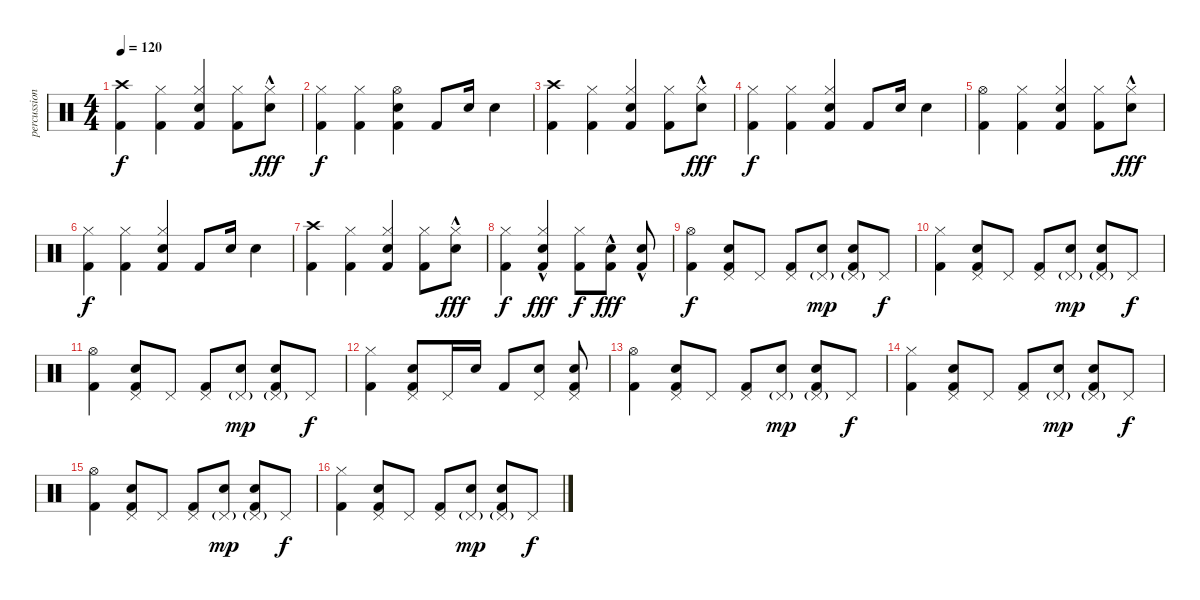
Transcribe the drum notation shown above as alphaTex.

\track ("percussion" "percussion") {instrument percussion}
\staff {score}
\articulation defaults
\ts (4 4)
\tempo 120
\clef neutral
\ks c
("Crash high (hit)" "Kick (hit) 2").4{dy f} ("Hi-Hat (closed)" "Kick (hit) 2").4 ("Hi-Hat (closed)" "Electric Snare (hit)" "Kick (hit) 2").4 ("Hi-Hat (closed)" "Kick (hit) 2").8 ("Hi-Hat (closed)" "Electric Snare (hit)"{hac}).8{dy fff} |
("Hi-Hat (closed)" "Kick (hit) 2").4{dy f} ("Hi-Hat (closed)" "Kick (hit) 2").4 ("Hi-Hat (open)" "Electric Snare (hit)" "Kick (hit) 2").4 "Kick (hit) 2".8 "Electric Snare (hit)".16 "Electric Snare (hit)".4 |
("Crash high (hit)" "Kick (hit) 2").4 ("Hi-Hat (closed)" "Kick (hit) 2").4 ("Hi-Hat (closed)" "Electric Snare (hit)" "Kick (hit) 2").4 ("Hi-Hat (closed)" "Kick (hit) 2").8 ("Hi-Hat (closed)" "Electric Snare (hit)"{hac}).8{dy fff} |
("Hi-Hat (closed)" "Kick (hit) 2").4{dy f} ("Hi-Hat (closed)" "Kick (hit) 2").4 ("Hi-Hat (closed)" "Electric Snare (hit)" "Kick (hit) 2").4 "Kick (hit) 2".8 "Electric Snare (hit)".16 "Electric Snare (hit)".4 |
("Hi-Hat (open)" "Kick (hit) 2").4 ("Hi-Hat (closed)" "Kick (hit) 2").4 ("Hi-Hat (closed)" "Electric Snare (hit)" "Kick (hit) 2").4 ("Hi-Hat (closed)" "Kick (hit) 2").8 ("Hi-Hat (closed)" "Electric Snare (hit)"{hac}).8{dy fff} |
("Hi-Hat (closed)" "Kick (hit) 2").4{dy f} ("Hi-Hat (closed)" "Kick (hit) 2").4 ("Hi-Hat (closed)" "Electric Snare (hit)" "Kick (hit) 2").4 "Kick (hit) 2".8 "Electric Snare (hit)".16 "Electric Snare (hit)".4 |
("Crash high (hit)" "Kick (hit) 2").4 ("Hi-Hat (closed)" "Kick (hit) 2").4 ("Hi-Hat (closed)" "Electric Snare (hit)" "Kick (hit) 2").4 ("Hi-Hat (closed)" "Kick (hit) 2").8 ("Hi-Hat (closed)" "Electric Snare (hit)"{hac}).8{dy fff} |
("Hi-Hat (closed)" "Kick (hit) 2").4{dy f} ("Hi-Hat (closed)" "Electric Snare (hit)"{hac} "Kick (hit) 2").4{dy fff} ("Hi-Hat (closed)" "Kick (hit) 2").8{dy f} ("Electric Snare (hit)"{hac} "Kick (hit) 2").8{dy fff} ("Electric Snare (hit)"{hac} "Kick (hit) 2").8 |
("Hi-Hat (open)" "Kick (hit) 2").4{dy f} ("Pedal Hi-Hat (hit)" "Electric Snare (hit)" "Kick (hit) 2").8 "Pedal Hi-Hat (hit)".8 ("Pedal Hi-Hat (hit)" "Kick (hit) 2").8 ("Pedal Hi-Hat (hit)"{g} "Electric Snare (hit)").8{dy mp} ("Pedal Hi-Hat (hit)"{g} "Electric Snare (hit)" "Kick (hit) 2").8 "Pedal Hi-Hat (hit)".8{dy f} |
("Hi-Hat (closed)" "Kick (hit) 2").4 ("Pedal Hi-Hat (hit)" "Electric Snare (hit)" "Kick (hit) 2").8 "Pedal Hi-Hat (hit)".8 ("Pedal Hi-Hat (hit)" "Kick (hit) 2").8 ("Pedal Hi-Hat (hit)"{g} "Electric Snare (hit)").8{dy mp} ("Pedal Hi-Hat (hit)"{g} "Electric Snare (hit)" "Kick (hit) 2").8 "Pedal Hi-Hat (hit)".8{dy f} |
("Hi-Hat (open)" "Kick (hit) 2").4 ("Pedal Hi-Hat (hit)" "Electric Snare (hit)" "Kick (hit) 2").8 "Pedal Hi-Hat (hit)".8 ("Pedal Hi-Hat (hit)" "Kick (hit) 2").8 ("Pedal Hi-Hat (hit)"{g} "Electric Snare (hit)").8{dy mp} ("Pedal Hi-Hat (hit)"{g} "Electric Snare (hit)" "Kick (hit) 2").8 "Pedal Hi-Hat (hit)".8{dy f} |
("Hi-Hat (closed)" "Kick (hit) 2").4 ("Pedal Hi-Hat (hit)" "Electric Snare (hit)" "Kick (hit) 2").8 "Pedal Hi-Hat (hit)".16 "Electric Snare (hit)".16 "Kick (hit) 2".8 ("Pedal Hi-Hat (hit)" "Electric Snare (hit)").8 ("Pedal Hi-Hat (hit)" "Electric Snare (hit)" "Kick (hit) 2").8 |
("Hi-Hat (open)" "Kick (hit) 2").4 ("Pedal Hi-Hat (hit)" "Electric Snare (hit)" "Kick (hit) 2").8 "Pedal Hi-Hat (hit)".8 ("Pedal Hi-Hat (hit)" "Kick (hit) 2").8 ("Pedal Hi-Hat (hit)"{g} "Electric Snare (hit)").8{dy mp} ("Pedal Hi-Hat (hit)"{g} "Electric Snare (hit)" "Kick (hit) 2").8 "Pedal Hi-Hat (hit)".8{dy f} |
("Hi-Hat (closed)" "Kick (hit) 2").4 ("Pedal Hi-Hat (hit)" "Electric Snare (hit)" "Kick (hit) 2").8 "Pedal Hi-Hat (hit)".8 ("Pedal Hi-Hat (hit)" "Kick (hit) 2").8 ("Pedal Hi-Hat (hit)"{g} "Electric Snare (hit)").8{dy mp} ("Pedal Hi-Hat (hit)"{g} "Electric Snare (hit)" "Kick (hit) 2").8 "Pedal Hi-Hat (hit)".8{dy f} |
("Hi-Hat (open)" "Kick (hit) 2").4 ("Pedal Hi-Hat (hit)" "Electric Snare (hit)" "Kick (hit) 2").8 "Pedal Hi-Hat (hit)".8 ("Pedal Hi-Hat (hit)" "Kick (hit) 2").8 ("Pedal Hi-Hat (hit)"{g} "Electric Snare (hit)").8{dy mp} ("Pedal Hi-Hat (hit)"{g} "Electric Snare (hit)" "Kick (hit) 2").8 "Pedal Hi-Hat (hit)".8{dy f} |
("Hi-Hat (closed)" "Kick (hit) 2").4 ("Pedal Hi-Hat (hit)" "Electric Snare (hit)" "Kick (hit) 2").8 "Pedal Hi-Hat (hit)".8 ("Pedal Hi-Hat (hit)" "Kick (hit) 2").8 ("Pedal Hi-Hat (hit)"{g} "Electric Snare (hit)").8{dy mp} ("Pedal Hi-Hat (hit)"{g} "Electric Snare (hit)" "Kick (hit) 2").8 "Pedal Hi-Hat (hit)".8{dy f}
